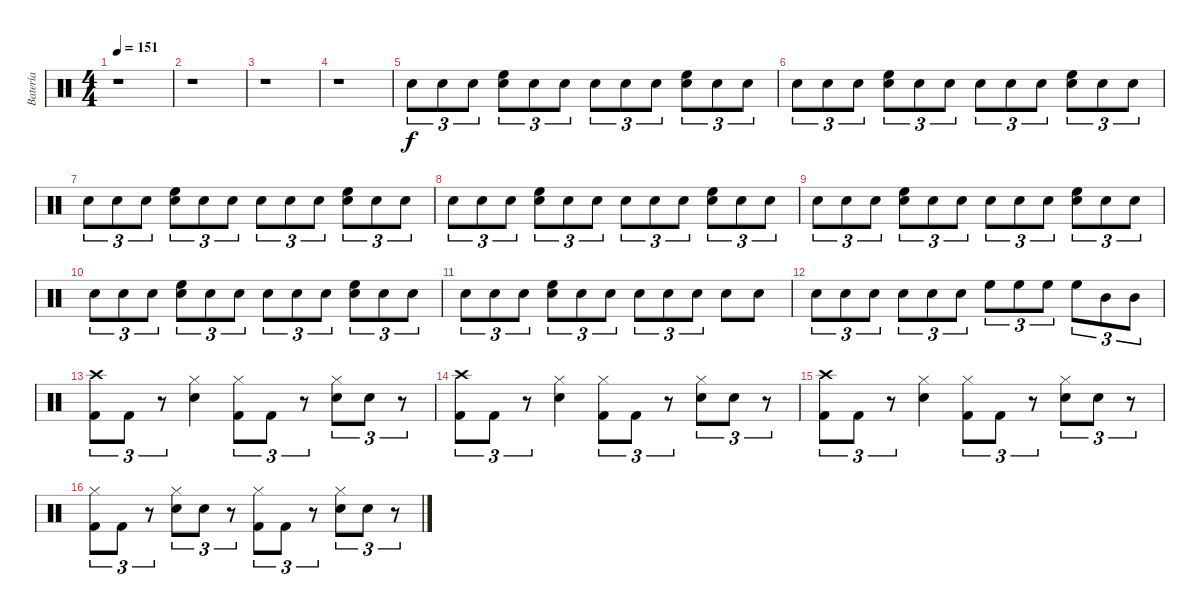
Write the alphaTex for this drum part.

\track ("Batería" "Batería") {instrument percussion}
\staff {score}
\articulation defaults
\ts (4 4)
\tempo 151
\clef neutral
\ks c
r.1{dy f} |
r.1 |
r.1 |
r.1 |
"Snare (hit) 2".8{tu (3 2)} "Snare (hit) 2".8{tu (3 2)} "Snare (hit) 2".8{tu (3 2)} ("High Floor Tom (hit)" "Snare (hit) 2").8{tu (3 2)} "Snare (hit) 2".8{tu (3 2)} "Snare (hit) 2".8{tu (3 2)} "Snare (hit) 2".8{tu (3 2)} "Snare (hit) 2".8{tu (3 2)} "Snare (hit) 2".8{tu (3 2)} ("High Floor Tom (hit)" "Snare (hit) 2").8{tu (3 2)} "Snare (hit) 2".8{tu (3 2)} "Snare (hit) 2".8{tu (3 2)} |
"Snare (hit) 2".8{tu (3 2)} "Snare (hit) 2".8{tu (3 2)} "Snare (hit) 2".8{tu (3 2)} ("High Floor Tom (hit)" "Snare (hit) 2").8{tu (3 2)} "Snare (hit) 2".8{tu (3 2)} "Snare (hit) 2".8{tu (3 2)} "Snare (hit) 2".8{tu (3 2)} "Snare (hit) 2".8{tu (3 2)} "Snare (hit) 2".8{tu (3 2)} ("High Floor Tom (hit)" "Snare (hit) 2").8{tu (3 2)} "Snare (hit) 2".8{tu (3 2)} "Snare (hit) 2".8{tu (3 2)} |
"Snare (hit) 2".8{tu (3 2)} "Snare (hit) 2".8{tu (3 2)} "Snare (hit) 2".8{tu (3 2)} ("High Floor Tom (hit)" "Snare (hit) 2").8{tu (3 2)} "Snare (hit) 2".8{tu (3 2)} "Snare (hit) 2".8{tu (3 2)} "Snare (hit) 2".8{tu (3 2)} "Snare (hit) 2".8{tu (3 2)} "Snare (hit) 2".8{tu (3 2)} ("High Floor Tom (hit)" "Snare (hit) 2").8{tu (3 2)} "Snare (hit) 2".8{tu (3 2)} "Snare (hit) 2".8{tu (3 2)} |
"Snare (hit) 2".8{tu (3 2)} "Snare (hit) 2".8{tu (3 2)} "Snare (hit) 2".8{tu (3 2)} ("High Floor Tom (hit)" "Snare (hit) 2").8{tu (3 2)} "Snare (hit) 2".8{tu (3 2)} "Snare (hit) 2".8{tu (3 2)} "Snare (hit) 2".8{tu (3 2)} "Snare (hit) 2".8{tu (3 2)} "Snare (hit) 2".8{tu (3 2)} ("High Floor Tom (hit)" "Snare (hit) 2").8{tu (3 2)} "Snare (hit) 2".8{tu (3 2)} "Snare (hit) 2".8{tu (3 2)} |
"Snare (hit) 2".8{tu (3 2)} "Snare (hit) 2".8{tu (3 2)} "Snare (hit) 2".8{tu (3 2)} ("High Floor Tom (hit)" "Snare (hit) 2").8{tu (3 2)} "Snare (hit) 2".8{tu (3 2)} "Snare (hit) 2".8{tu (3 2)} "Snare (hit) 2".8{tu (3 2)} "Snare (hit) 2".8{tu (3 2)} "Snare (hit) 2".8{tu (3 2)} ("High Floor Tom (hit)" "Snare (hit) 2").8{tu (3 2)} "Snare (hit) 2".8{tu (3 2)} "Snare (hit) 2".8{tu (3 2)} |
"Snare (hit) 2".8{tu (3 2)} "Snare (hit) 2".8{tu (3 2)} "Snare (hit) 2".8{tu (3 2)} ("High Floor Tom (hit)" "Snare (hit) 2").8{tu (3 2)} "Snare (hit) 2".8{tu (3 2)} "Snare (hit) 2".8{tu (3 2)} "Snare (hit) 2".8{tu (3 2)} "Snare (hit) 2".8{tu (3 2)} "Snare (hit) 2".8{tu (3 2)} ("High Floor Tom (hit)" "Snare (hit) 2").8{tu (3 2)} "Snare (hit) 2".8{tu (3 2)} "Snare (hit) 2".8{tu (3 2)} |
"Snare (hit) 2".8{tu (3 2)} "Snare (hit) 2".8{tu (3 2)} "Snare (hit) 2".8{tu (3 2)} ("High Floor Tom (hit)" "Snare (hit) 2").8{tu (3 2)} "Snare (hit) 2".8{tu (3 2)} "Snare (hit) 2".8{tu (3 2)} "Snare (hit) 2".8{tu (3 2)} "Snare (hit) 2".8{tu (3 2)} "Snare (hit) 2".8{tu (3 2)} "Snare (hit) 2".8 "Snare (hit) 2".8 |
"Snare (hit) 2".8{tu (3 2)} "Snare (hit) 2".8{tu (3 2)} "Snare (hit) 2".8{tu (3 2)} "Snare (hit) 2".8{tu (3 2)} "Snare (hit) 2".8{tu (3 2)} "Snare (hit) 2".8{tu (3 2)} "High Floor Tom (hit)".8{tu (3 2)} "High Floor Tom (hit)".8{tu (3 2)} "High Floor Tom (hit)".8{tu (3 2)} "High Floor Tom (hit)".8{tu (3 2)} "Mid Tom (hit)".8{tu (3 2)} "Mid Tom (hit)".8{tu (3 2)} |
("Crash high (hit)" "Kick (hit) 2").8{tu (3 2)} "Kick (hit) 2".8{tu (3 2)} r.8{tu (3 2)} ("Hi-Hat (closed)" "Snare (hit) 2").4 ("Hi-Hat (closed)" "Kick (hit) 2").8{tu (3 2)} "Kick (hit) 2".8{tu (3 2)} r.8{tu (3 2)} ("Hi-Hat (closed)" "Snare (hit) 2").8{tu (3 2)} "Snare (hit) 2".8{tu (3 2)} r.8{tu (3 2)} |
("Crash high (hit)" "Kick (hit) 2").8{tu (3 2)} "Kick (hit) 2".8{tu (3 2)} r.8{tu (3 2)} ("Hi-Hat (closed)" "Snare (hit) 2").4 ("Hi-Hat (closed)" "Kick (hit) 2").8{tu (3 2)} "Kick (hit) 2".8{tu (3 2)} r.8{tu (3 2)} ("Hi-Hat (closed)" "Snare (hit) 2").8{tu (3 2)} "Snare (hit) 2".8{tu (3 2)} r.8{tu (3 2)} |
("Crash high (hit)" "Kick (hit) 2").8{tu (3 2)} "Kick (hit) 2".8{tu (3 2)} r.8{tu (3 2)} ("Hi-Hat (closed)" "Snare (hit) 2").4 ("Hi-Hat (closed)" "Kick (hit) 2").8{tu (3 2)} "Kick (hit) 2".8{tu (3 2)} r.8{tu (3 2)} ("Hi-Hat (closed)" "Snare (hit) 2").8{tu (3 2)} "Snare (hit) 2".8{tu (3 2)} r.8{tu (3 2)} |
("Hi-Hat (closed)" "Kick (hit) 2").8{tu (3 2)} "Kick (hit) 2".8{tu (3 2)} r.8{tu (3 2)} ("Hi-Hat (closed)" "Snare (hit) 2").8{tu (3 2)} "Snare (hit) 2".8{tu (3 2)} r.8{tu (3 2)} ("Hi-Hat (closed)" "Kick (hit) 2").8{tu (3 2)} "Kick (hit) 2".8{tu (3 2)} r.8{tu (3 2)} ("Hi-Hat (closed)" "Snare (hit) 2").8{tu (3 2)} "Snare (hit) 2".8{tu (3 2)} r.8{tu (3 2)}
